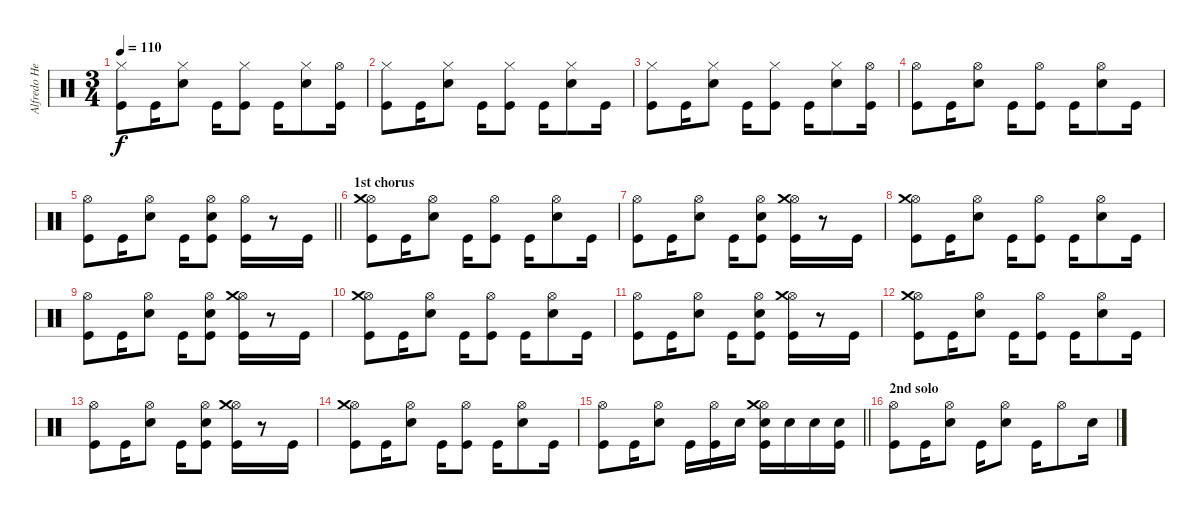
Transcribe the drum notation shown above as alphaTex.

\track ("Alfredo Hernandez" "Alfredo He") {instrument percussion}
\staff {score}
\articulation defaults
\ts (3 4)
\tempo 110
\clef neutral
\ks c
("Kick (hit)" "Hi-Hat (closed)").8{dy f} "Kick (hit)".16 ("Electric Snare (hit)" "Hi-Hat (closed)").8 "Kick (hit)".16 ("Kick (hit)" "Hi-Hat (closed)").8 "Kick (hit)".16 ("Electric Snare (hit)" "Hi-Hat (closed)").8 ("Kick (hit)" "Hi-Hat (open)").16 |
("Kick (hit)" "Hi-Hat (closed)").8 "Kick (hit)".16 ("Electric Snare (hit)" "Hi-Hat (closed)").8 "Kick (hit)".16 ("Kick (hit)" "Hi-Hat (closed)").8 "Kick (hit)".16 ("Electric Snare (hit)" "Hi-Hat (closed)").8 "Kick (hit)".16 |
("Kick (hit)" "Hi-Hat (closed)").8 "Kick (hit)".16 ("Electric Snare (hit)" "Hi-Hat (closed)").8 "Kick (hit)".16 ("Kick (hit)" "Hi-Hat (closed)").8 "Kick (hit)".16 ("Electric Snare (hit)" "Hi-Hat (closed)").8 ("Kick (hit)" "Hi-Hat (open)").16 |
("Kick (hit)" "Hi-Hat (open)").8 "Kick (hit)".16 ("Electric Snare (hit)" "Hi-Hat (open)").8 "Kick (hit)".16 ("Kick (hit)" "Hi-Hat (open)").8 "Kick (hit)".16 ("Electric Snare (hit)" "Hi-Hat (open)").8 "Kick (hit)".16 |
\barLineRight lightlight
("Kick (hit)" "Hi-Hat (open)").8 "Kick (hit)".16 ("Electric Snare (hit)" "Hi-Hat (open)").8 "Kick (hit)".16 ("Kick (hit)" "Electric Snare (hit)" "Hi-Hat (open)").8 ("Kick (hit)" "Hi-Hat (open)").16 r.8 "Kick (hit)".16 |
\section ("" "1st chorus")
("Kick (hit)" "Hi-Hat (open)" "Crash medium (hit)").8 "Kick (hit)".16 ("Electric Snare (hit)" "Hi-Hat (open)").8 "Kick (hit)".16 ("Kick (hit)" "Hi-Hat (open)").8 "Kick (hit)".16 ("Electric Snare (hit)" "Hi-Hat (open)").8 "Kick (hit)".16 |
("Kick (hit)" "Hi-Hat (open)").8 "Kick (hit)".16 ("Electric Snare (hit)" "Hi-Hat (open)").8 "Kick (hit)".16 ("Kick (hit)" "Electric Snare (hit)" "Hi-Hat (open)").8 ("Kick (hit)" "Hi-Hat (open)" "Crash medium (hit)").16 r.8 "Kick (hit)".16 |
("Kick (hit)" "Hi-Hat (open)" "Crash medium (hit)").8 "Kick (hit)".16 ("Electric Snare (hit)" "Hi-Hat (open)").8 "Kick (hit)".16 ("Kick (hit)" "Hi-Hat (open)").8 "Kick (hit)".16 ("Electric Snare (hit)" "Hi-Hat (open)").8 "Kick (hit)".16 |
("Kick (hit)" "Hi-Hat (open)").8 "Kick (hit)".16 ("Electric Snare (hit)" "Hi-Hat (open)").8 "Kick (hit)".16 ("Kick (hit)" "Electric Snare (hit)" "Hi-Hat (open)").8 ("Kick (hit)" "Hi-Hat (open)" "Crash medium (hit)").16 r.8 "Kick (hit)".16 |
("Kick (hit)" "Hi-Hat (open)" "Crash medium (hit)").8 "Kick (hit)".16 ("Electric Snare (hit)" "Hi-Hat (open)").8 "Kick (hit)".16 ("Kick (hit)" "Hi-Hat (open)").8 "Kick (hit)".16 ("Electric Snare (hit)" "Hi-Hat (open)").8 "Kick (hit)".16 |
("Kick (hit)" "Hi-Hat (open)").8 "Kick (hit)".16 ("Electric Snare (hit)" "Hi-Hat (open)").8 "Kick (hit)".16 ("Kick (hit)" "Electric Snare (hit)" "Hi-Hat (open)").8 ("Kick (hit)" "Hi-Hat (open)" "Crash medium (hit)").16 r.8 "Kick (hit)".16 |
("Kick (hit)" "Hi-Hat (open)" "Crash medium (hit)").8 "Kick (hit)".16 ("Electric Snare (hit)" "Hi-Hat (open)").8 "Kick (hit)".16 ("Kick (hit)" "Hi-Hat (open)").8 "Kick (hit)".16 ("Electric Snare (hit)" "Hi-Hat (open)").8 "Kick (hit)".16 |
("Kick (hit)" "Hi-Hat (open)").8 "Kick (hit)".16 ("Electric Snare (hit)" "Hi-Hat (open)").8 "Kick (hit)".16 ("Kick (hit)" "Electric Snare (hit)" "Hi-Hat (open)").8 ("Kick (hit)" "Hi-Hat (open)" "Crash medium (hit)").16 r.8 "Kick (hit)".16 |
("Kick (hit)" "Hi-Hat (open)" "Crash medium (hit)").8 "Kick (hit)".16 ("Electric Snare (hit)" "Hi-Hat (open)").8 "Kick (hit)".16 ("Kick (hit)" "Hi-Hat (open)").8 "Kick (hit)".16 ("Electric Snare (hit)" "Hi-Hat (open)").8 "Kick (hit)".16 |
\barLineRight lightlight
("Kick (hit)" "Hi-Hat (open)").8 "Kick (hit)".16 ("Electric Snare (hit)" "Hi-Hat (open)").8 "Kick (hit)".16 ("Kick (hit)" "Hi-Hat (open)").16 "Electric Snare (hit)".16 ("Kick (hit)" "Electric Snare (hit)" "Hi-Hat (open)" "Crash medium (hit)").16 "Electric Snare (hit)".16 "Electric Snare (hit)".16 ("Kick (hit)" "Electric Snare (hit)").16 |
\section ("" "2nd solo")
("Kick (hit)" "Hi-Hat (open)").8 "Kick (hit)".16 ("Electric Snare (hit)" "Hi-Hat (open)").8 "Kick (hit)".16 ("Electric Snare (hit)" "Hi-Hat (open)").8 "Kick (hit)".16 "Hi-Hat (open)".8 "Electric Snare (hit)".16
